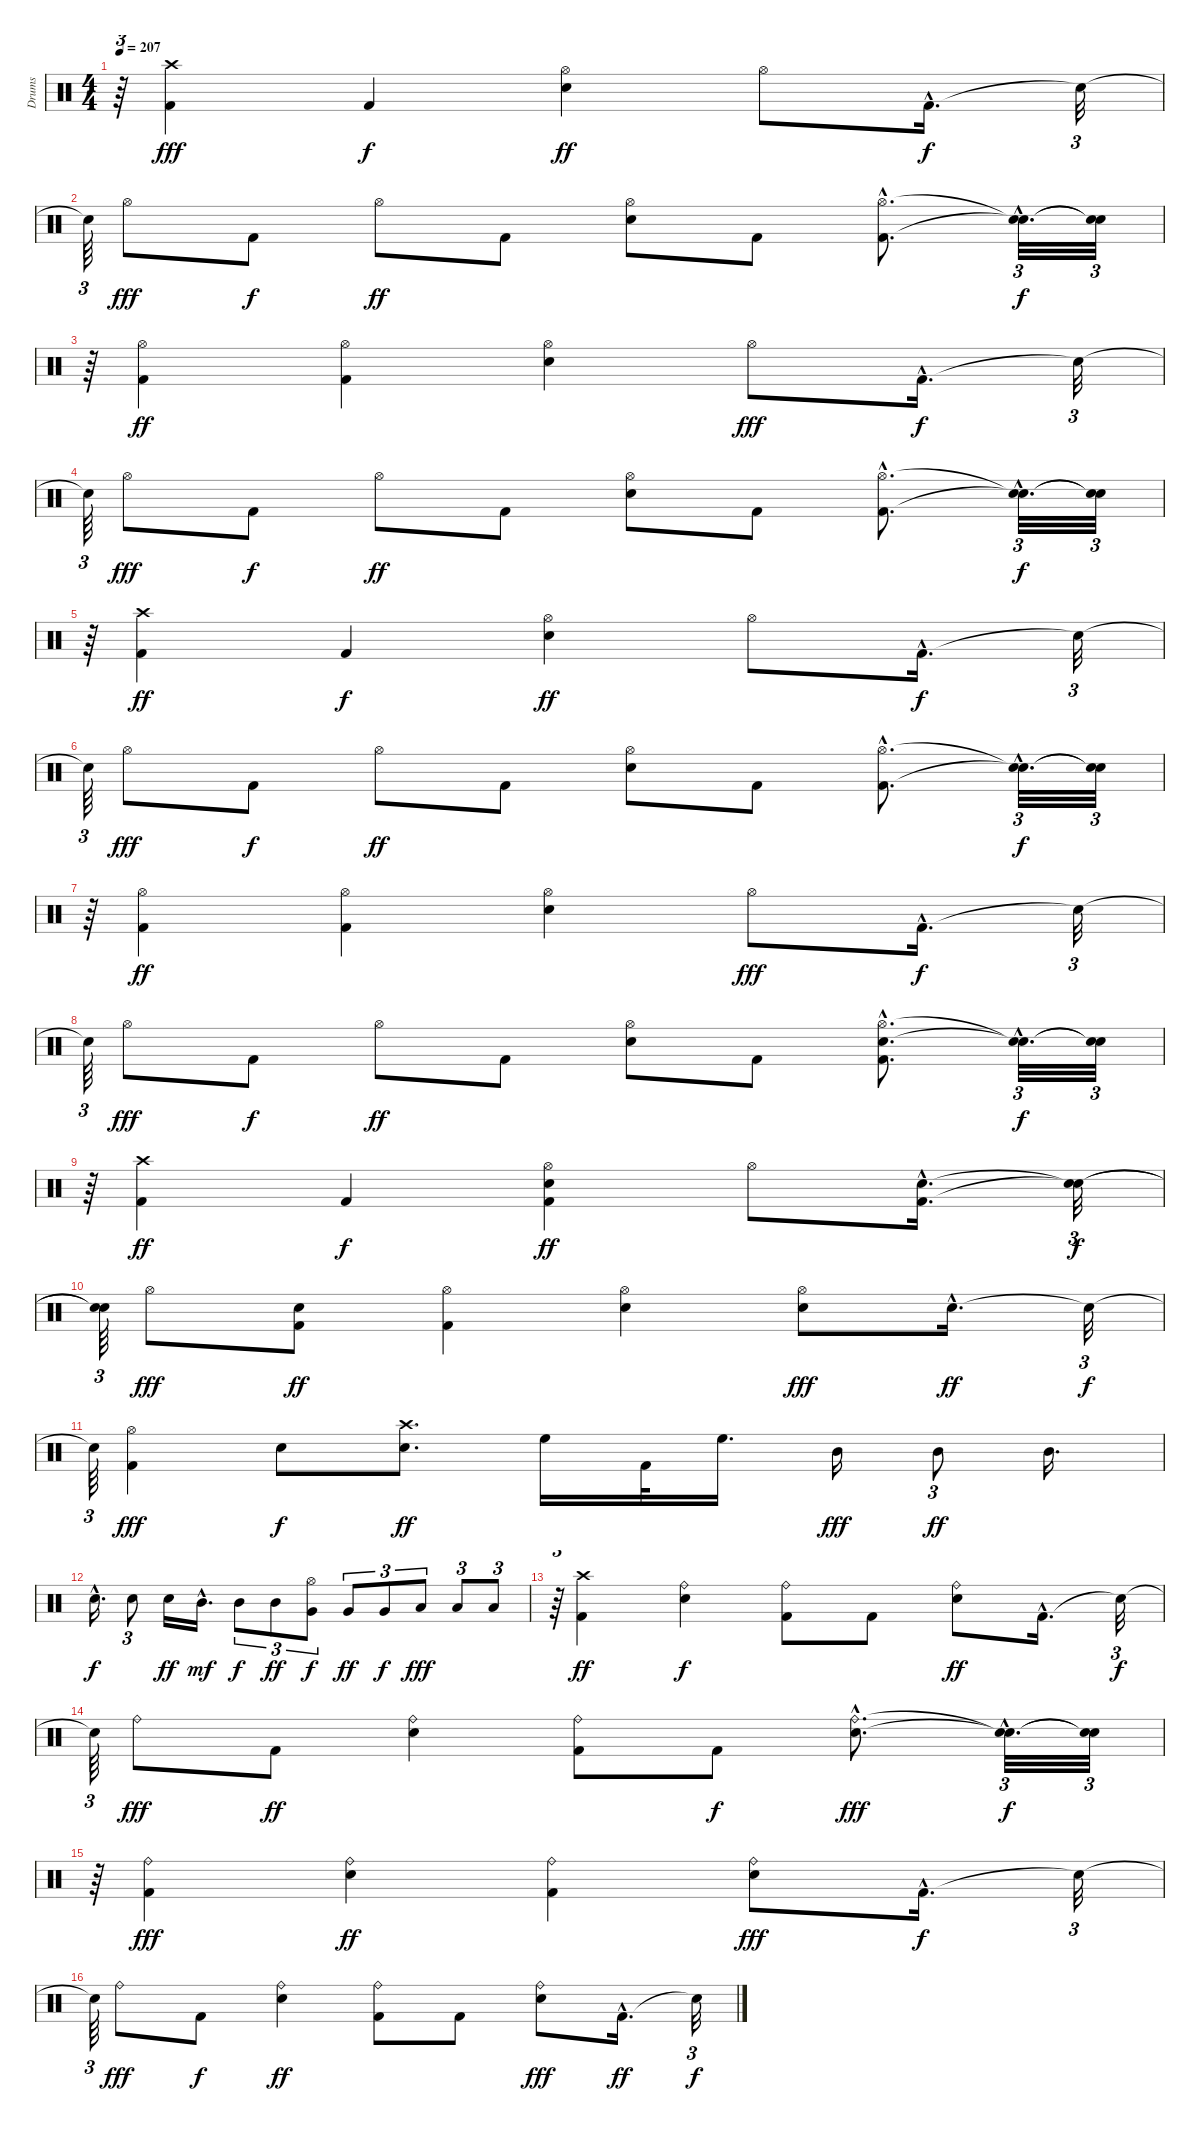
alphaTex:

\track ("Drums" "Drums") {instrument percussion}
\staff {score}
\articulation defaults
\ts (4 4)
\tempo 207
\clef neutral
\ks c
r.64{tu (3 2) dy f} ("Kick (hit) 2" "Crash high (hit)").4{dy fff} "Kick (hit) 2".4{dy f} ("Snare (hit) 2" "Hi-Hat (open)").4{dy ff} "Hi-Hat (open)".8 "Kick (hit) 2"{hac}.16{d dy f} "Snare (hit)"{t}.32{tu (3 2)} |
"Snare (hit)"{t}.64{tu (3 2)} "Hi-Hat (open)".8{dy fff} "Kick (hit) 2".8{dy f} "Hi-Hat (open)".8{dy ff} "Kick (hit) 2".8 ("Snare (hit) 2" "Hi-Hat (open)").8 "Kick (hit) 2".8 ("Hi-Hat (open)"{hac} "Kick (hit) 2"{hac}).8{d} ("Snare (hit)"{hac t} "Snare (hit)"{hac t}).32{d tu (3 2) dy f} ("Snare (hit)"{t} "Snare (hit)"{t}).32{tu (3 2)} |
r.64{tu (3 2)} ("Hi-Hat (open)" "Kick (hit) 2").4{dy ff} ("Hi-Hat (open)" "Kick (hit) 2").4 ("Snare (hit) 2" "Hi-Hat (open)").4 "Hi-Hat (open)".8{dy fff} "Kick (hit) 2"{hac}.16{d dy f} "Snare (hit)"{t}.32{tu (3 2)} |
"Snare (hit)"{t}.64{tu (3 2)} "Hi-Hat (open)".8{dy fff} "Kick (hit) 2".8{dy f} "Hi-Hat (open)".8{dy ff} "Kick (hit) 2".8 ("Snare (hit) 2" "Hi-Hat (open)").8 "Kick (hit) 2".8 ("Hi-Hat (open)"{hac} "Kick (hit) 2"{hac}).8{d} ("Snare (hit)"{hac t} "Snare (hit)"{hac t}).32{d tu (3 2) dy f} ("Snare (hit)"{t} "Snare (hit)"{t}).32{tu (3 2)} |
r.64{tu (3 2)} ("Crash high (hit)" "Kick (hit) 2").4{dy ff} "Kick (hit) 2".4{dy f} ("Snare (hit) 2" "Hi-Hat (open)").4{dy ff} "Hi-Hat (open)".8 "Kick (hit) 2"{hac}.16{d dy f} "Snare (hit)"{t}.32{tu (3 2)} |
"Snare (hit)"{t}.64{tu (3 2)} "Hi-Hat (open)".8{dy fff} "Kick (hit) 2".8{dy f} "Hi-Hat (open)".8{dy ff} "Kick (hit) 2".8 ("Snare (hit) 2" "Hi-Hat (open)").8 "Kick (hit) 2".8 ("Hi-Hat (open)"{hac} "Kick (hit) 2"{hac}).8{d} ("Snare (hit)"{hac t} "Snare (hit)"{hac t}).32{d tu (3 2) dy f} ("Snare (hit)"{t} "Snare (hit)"{t}).32{tu (3 2)} |
r.64{tu (3 2)} ("Hi-Hat (open)" "Kick (hit) 2").4{dy ff} ("Hi-Hat (open)" "Kick (hit) 2").4 ("Snare (hit) 2" "Hi-Hat (open)").4 "Hi-Hat (open)".8{dy fff} "Kick (hit) 2"{hac}.16{d dy f} "Snare (hit)"{t}.32{tu (3 2)} |
"Snare (hit)"{t}.64{tu (3 2)} "Hi-Hat (open)".8{dy fff} "Kick (hit) 2".8{dy f} "Hi-Hat (open)".8{dy ff} "Kick (hit) 2".8 ("Snare (hit) 2" "Hi-Hat (open)").8 "Kick (hit) 2".8 ("Snare (hit) 2" "Hi-Hat (open)"{hac} "Kick (hit) 2"{hac}).8{d} ("Snare (hit)"{hac t} "Snare (hit)"{hac t}).32{d tu (3 2) dy f} ("Snare (hit)"{t} "Snare (hit)"{t}).32{tu (3 2)} |
r.64{tu (3 2)} ("Crash high (hit)" "Kick (hit) 2").4{dy ff} "Kick (hit) 2".4{dy f} ("Snare (hit) 2" "Hi-Hat (open)" "Kick (hit) 2").4{dy ff} "Hi-Hat (open)".8 ("Snare (hit) 2"{hac} "Kick (hit) 2"{hac}).16{d} ("Snare (hit)"{t} "Snare (hit)"{t}).32{tu (3 2) dy f} |
("Snare (hit)"{t} "Snare (hit)"{t}).64{tu (3 2)} "Hi-Hat (open)".8{dy fff} ("Snare (hit) 2" "Kick (hit) 2").8{dy ff} ("Hi-Hat (open)" "Kick (hit) 2").4 ("Snare (hit) 2" "Hi-Hat (open)").4 ("Snare (hit) 2" "Hi-Hat (open)").8{dy fff} "Snare (hit) 2"{hac}.16{d dy ff} "Snare (hit)"{t}.32{tu (3 2) dy f} |
"Snare (hit)"{t}.64{tu (3 2)} ("Kick (hit) 2" "Hi-Hat (open)").4{dy fff} "Snare (hit) 2".8{dy f} ("Crash high (hit)" "Snare (hit) 2").8{d dy ff} "High Floor Tom (hit)".16 "Kick (hit) 2".32 "High Floor Tom (hit)".16{d} "Mid Tom (hit)".16{dy fff} "Mid Tom (hit)".8{tu (3 2) dy ff} "Mid Tom (hit)".16{d} |
"Snare (hit) 2"{hac}.16{d dy f} "Snare (hit) 2".8{tu (3 2)} "Snare (hit) 2".16{dy ff} "Mid Tom (hit)"{hac}.16{d dy mf} "Mid Tom (hit)".8{tu (3 2) dy f} "Mid Tom (hit)".8{tu (3 2) dy ff} ("Hi-Hat (open)" "Very Low Tom (hit)").8{tu (3 2) dy f} "Very Low Tom (hit)".8{tu (3 2) dy ff} "Very Low Tom (hit)".8{tu (3 2) dy f} "Low Floor Tom (hit)".8{tu (3 2) dy fff} "Low Floor Tom (hit)".8{tu (3 2)} "Low Floor Tom (hit)".8{tu (3 2)} |
r.64{tu (3 2)} ("Crash high (hit)" "Kick (hit) 2").4{dy ff} ("Ride (bell)" "Snare (hit) 2").4{dy f} ("Kick (hit) 2" "Ride (bell)").8 "Kick (hit) 2".8 ("Snare (hit) 2" "Ride (bell)").8{dy ff} "Kick (hit) 2"{hac}.16{d} "Snare (hit)"{t}.32{tu (3 2) dy f} |
"Snare (hit)"{t}.64{tu (3 2)} "Ride (bell)".8{dy fff} "Kick (hit) 2".8{dy ff} ("Snare (hit) 2" "Ride (bell)").4 ("Kick (hit) 2" "Ride (bell)").8 "Kick (hit) 2".8{dy f} ("Snare (hit) 2"{hac} "Ride (bell)"{hac}).8{d dy fff} ("Snare (hit)"{hac t} "Snare (hit)"{hac t}).32{d tu (3 2) dy f} ("Snare (hit)"{t} "Snare (hit)"{t}).32{tu (3 2)} |
r.64{tu (3 2)} ("Kick (hit) 2" "Ride (bell)").4{dy fff} ("Snare (hit) 2" "Ride (bell)").4{dy ff} ("Kick (hit) 2" "Ride (bell)").4 ("Snare (hit) 2" "Ride (bell)").8{dy fff} "Kick (hit) 2"{hac}.16{d dy f} "Snare (hit)"{t}.32{tu (3 2)} |
"Snare (hit)"{t}.64{tu (3 2)} "Ride (bell)".8{dy fff} "Kick (hit) 2".8{dy f} ("Snare (hit) 2" "Ride (bell)").4{dy ff} ("Kick (hit) 2" "Ride (bell)").8 "Kick (hit) 2".8 ("Snare (hit) 2" "Ride (bell)").8{dy fff} "Kick (hit) 2"{hac}.16{d dy ff} "Snare (hit)"{t}.32{tu (3 2) dy f}
